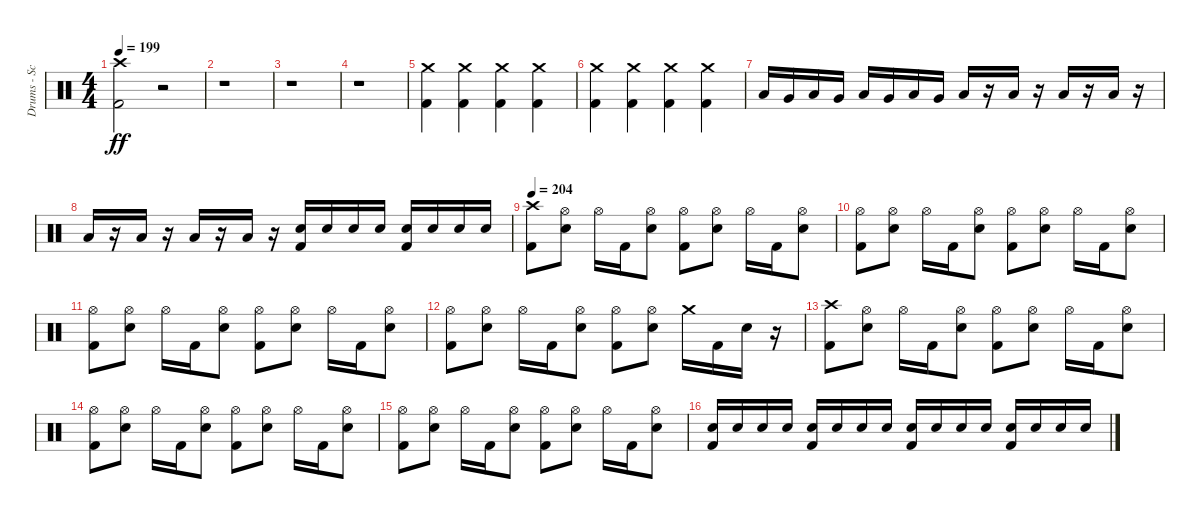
\track ("Drums - Scott" "Drums - Sc") {instrument percussion}
\staff {score}
\articulation defaults
\ts (4 4)
\tempo 199
\clef neutral
\ks c
("Kick (hit) 2" "Crash high (hit)").2{dy ff} r.2 |
r.1 |
r.1 |
r.1 |
("Crash medium (hit)" "Kick (hit) 2").4 ("Crash medium (hit)" "Kick (hit) 2").4 ("Crash medium (hit)" "Kick (hit) 2").4 ("Crash medium (hit)" "Kick (hit) 2").4 |
("Crash medium (hit)" "Kick (hit) 2").4 ("Crash medium (hit)" "Kick (hit) 2").4 ("Crash medium (hit)" "Kick (hit) 2").4 ("Kick (hit) 2" "Crash medium (hit)").4 |
"Low Tom (hit)".16 "Very Low Tom (hit)".16 "Low Tom (hit)".16 "Very Low Tom (hit)".16 "Low Tom (hit)".16 "Very Low Tom (hit)".16 "Low Tom (hit)".16 "Very Low Tom (hit)".16 "Low Tom (hit)".16 r.16 "Low Tom (hit)".16 r.16 "Low Tom (hit)".16 r.16 "Low Tom (hit)".16 r.16 |
"Low Tom (hit)".16 r.16 "Low Tom (hit)".16 r.16 "Low Tom (hit)".16 r.16 "Low Tom (hit)".16 r.16 ("Electric Snare (hit)" "Kick (hit) 2").16 "Electric Snare (hit)".16 "Electric Snare (hit)".16 "Electric Snare (hit)".16 ("Electric Snare (hit)" "Kick (hit) 2").16 "Electric Snare (hit)".16 "Electric Snare (hit)".16 "Electric Snare (hit)".16 |
\tempo 204
("Kick (hit) 2" "Crash high (hit)").8 ("Electric Snare (hit)" "Hi-Hat (open)").8 "Hi-Hat (open)".16 "Kick (hit) 2".16 ("Electric Snare (hit)" "Hi-Hat (open)").8 ("Hi-Hat (open)" "Kick (hit) 2").8 ("Electric Snare (hit)" "Hi-Hat (open)").8 "Hi-Hat (open)".16 "Kick (hit) 2".16 ("Electric Snare (hit)" "Hi-Hat (open)").8 |
("Hi-Hat (open)" "Kick (hit) 2").8 ("Electric Snare (hit)" "Hi-Hat (open)").8 "Hi-Hat (open)".16 "Kick (hit) 2".16 ("Electric Snare (hit)" "Hi-Hat (open)").8 ("Hi-Hat (open)" "Kick (hit) 2").8 ("Electric Snare (hit)" "Hi-Hat (open)").8 "Hi-Hat (open)".16 "Kick (hit) 2".16 ("Electric Snare (hit)" "Hi-Hat (open)").8 |
("Hi-Hat (open)" "Kick (hit) 2").8 ("Electric Snare (hit)" "Hi-Hat (open)").8 "Hi-Hat (open)".16 "Kick (hit) 2".16 ("Electric Snare (hit)" "Hi-Hat (open)").8 ("Hi-Hat (open)" "Kick (hit) 2").8 ("Electric Snare (hit)" "Hi-Hat (open)").8 "Hi-Hat (open)".16 "Kick (hit) 2".16 ("Electric Snare (hit)" "Hi-Hat (open)").8 |
("Hi-Hat (open)" "Kick (hit) 2").8 ("Electric Snare (hit)" "Hi-Hat (open)").8 "Hi-Hat (open)".16 "Kick (hit) 2".16 ("Electric Snare (hit)" "Hi-Hat (open)").8 ("Hi-Hat (open)" "Kick (hit) 2").8 ("Electric Snare (hit)" "Hi-Hat (open)").8 "Crash medium (hit)".16 "Kick (hit) 2".16 "Electric Snare (hit)".16 r.16 |
("Crash high (hit)" "Kick (hit) 2").8 ("Electric Snare (hit)" "Hi-Hat (open)").8 "Hi-Hat (open)".16 "Kick (hit) 2".16 ("Electric Snare (hit)" "Hi-Hat (open)").8 ("Hi-Hat (open)" "Kick (hit) 2").8 ("Electric Snare (hit)" "Hi-Hat (open)").8 "Hi-Hat (open)".16 "Kick (hit) 2".16 ("Electric Snare (hit)" "Hi-Hat (open)").8 |
("Hi-Hat (open)" "Kick (hit) 2").8 ("Electric Snare (hit)" "Hi-Hat (open)").8 "Hi-Hat (open)".16 "Kick (hit) 2".16 ("Electric Snare (hit)" "Hi-Hat (open)").8 ("Hi-Hat (open)" "Kick (hit) 2").8 ("Electric Snare (hit)" "Hi-Hat (open)").8 "Hi-Hat (open)".16 "Kick (hit) 2".16 ("Electric Snare (hit)" "Hi-Hat (open)").8 |
("Hi-Hat (open)" "Kick (hit) 2").8 ("Electric Snare (hit)" "Hi-Hat (open)").8 "Hi-Hat (open)".16 "Kick (hit) 2".16 ("Electric Snare (hit)" "Hi-Hat (open)").8 ("Hi-Hat (open)" "Kick (hit) 2").8 ("Electric Snare (hit)" "Hi-Hat (open)").8 "Hi-Hat (open)".16 "Kick (hit) 2".16 ("Electric Snare (hit)" "Hi-Hat (open)").8 |
("Kick (hit) 2" "Electric Snare (hit)").16 "Electric Snare (hit)".16 "Electric Snare (hit)".16 "Electric Snare (hit)".16 ("Kick (hit) 2" "Electric Snare (hit)").16 "Electric Snare (hit)".16 "Electric Snare (hit)".16 "Electric Snare (hit)".16 ("Kick (hit) 2" "Electric Snare (hit)").16 "Electric Snare (hit)".16 "Electric Snare (hit)".16 "Electric Snare (hit)".16 ("Kick (hit) 2" "Electric Snare (hit)").16 "Electric Snare (hit)".16 "Electric Snare (hit)".16 "Electric Snare (hit)".16
